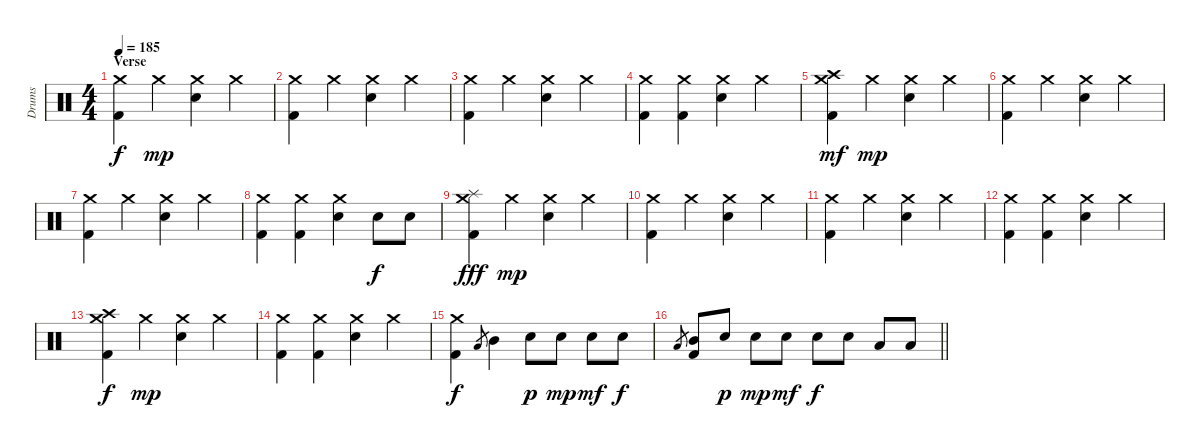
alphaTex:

\track ("Drums" "Drums") {instrument percussion}
\staff {score}
\articulation defaults
\ts (4 4)
\section ("" "Verse")
\tempo 185
\clef neutral
\ks c
("Crash medium (hit)" "Kick (hit) 2").4{dy f} "Crash medium (hit)".4{dy mp} ("Crash medium (hit)" "Electric Snare (hit)").4 "Crash medium (hit)".4 |
("Crash medium (hit)" "Kick (hit) 2").4 "Crash medium (hit)".4 ("Crash medium (hit)" "Electric Snare (hit)").4 "Crash medium (hit)".4 |
("Crash medium (hit)" "Kick (hit) 2").4 "Crash medium (hit)".4 ("Crash medium (hit)" "Electric Snare (hit)").4 "Crash medium (hit)".4 |
("Crash medium (hit)" "Kick (hit) 2").4 ("Crash medium (hit)" "Kick (hit) 2").4 ("Crash medium (hit)" "Electric Snare (hit)").4 "Crash medium (hit)".4 |
("Crash medium (hit)" "Crash high (hit)" "Kick (hit) 2").4{dy mf} "Crash medium (hit)".4{dy mp} ("Crash medium (hit)" "Electric Snare (hit)").4 "Crash medium (hit)".4 |
("Crash medium (hit)" "Kick (hit) 2").4 "Crash medium (hit)".4 ("Crash medium (hit)" "Electric Snare (hit)").4 "Crash medium (hit)".4 |
("Crash medium (hit)" "Kick (hit) 2").4 "Crash medium (hit)".4 ("Crash medium (hit)" "Electric Snare (hit)").4 "Crash medium (hit)".4 |
("Crash medium (hit)" "Kick (hit) 2").4 ("Crash medium (hit)" "Kick (hit) 2").4 ("Crash medium (hit)" "Electric Snare (hit)").4 "Electric Snare (hit)".8{dy f} "Electric Snare (hit)".8 |
("Crash medium (hit)" "Splash (hit)" "Kick (hit) 2").4{dy fff} "Crash medium (hit)".4{dy mp} ("Crash medium (hit)" "Electric Snare (hit)").4 "Crash medium (hit)".4 |
("Crash medium (hit)" "Kick (hit) 2").4 "Crash medium (hit)".4 ("Crash medium (hit)" "Electric Snare (hit)").4 "Crash medium (hit)".4 |
("Crash medium (hit)" "Kick (hit) 2").4 "Crash medium (hit)".4 ("Crash medium (hit)" "Electric Snare (hit)").4 "Crash medium (hit)".4 |
("Crash medium (hit)" "Kick (hit) 2").4 ("Crash medium (hit)" "Kick (hit) 2").4 ("Crash medium (hit)" "Electric Snare (hit)").4 "Crash medium (hit)".4 |
("Crash medium (hit)" "Crash high (hit)" "Kick (hit) 2").4{dy f} "Crash medium (hit)".4{dy mp} ("Crash medium (hit)" "Electric Snare (hit)").4 "Crash medium (hit)".4 |
("Crash medium (hit)" "Kick (hit) 2").4 ("Crash medium (hit)" "Kick (hit) 2").4 ("Crash medium (hit)" "Electric Snare (hit)").4 "Crash medium (hit)".4 |
("Crash medium (hit)" "Kick (hit) 2").4{dy f} "Low Tom (hit)".8{gr} "Mid Tom (hit)".4 "Electric Snare (hit)".8{dy p} "Electric Snare (hit)".8{dy mp} "Electric Snare (hit)".8{dy mf} "Electric Snare (hit)".8{dy f} |
\barLineRight lightlight "Low Tom (hit)".8{gr}
("Mid Tom (hit)" "Kick (hit) 2").8 "Electric Snare (hit)".8{dy p} "Electric Snare (hit)".8{dy mp} "Electric Snare (hit)".8{dy mf} "Electric Snare (hit)".8{dy f} "Electric Snare (hit)".8 "Low Tom (hit)".8 "Low Tom (hit)".8
